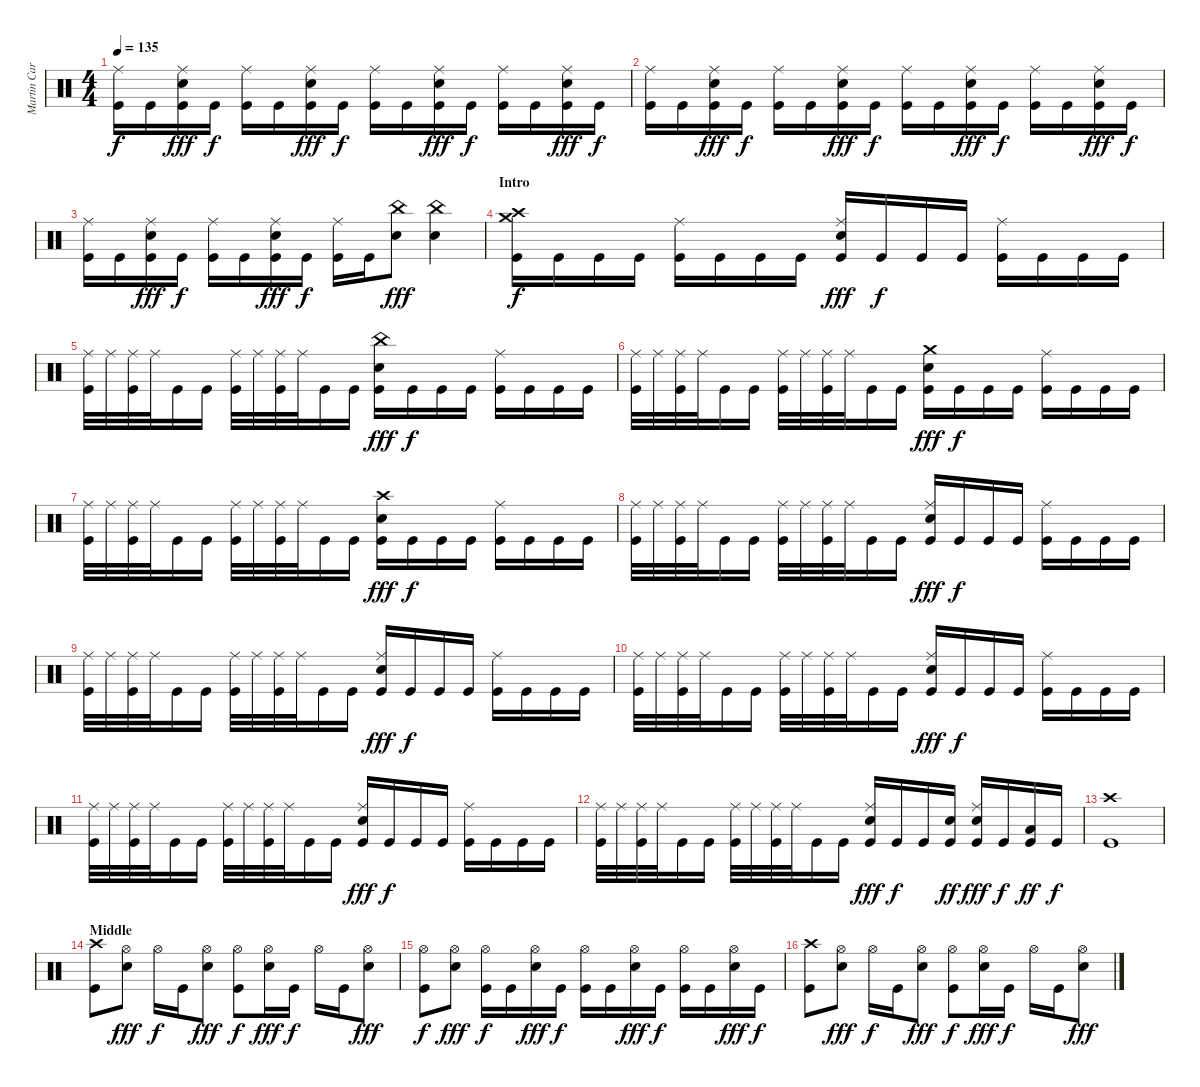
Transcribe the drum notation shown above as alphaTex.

\track ("Martin Carrizo" "Martin Car") {instrument percussion}
\staff {score}
\articulation defaults
\ts (4 4)
\tempo 135
\clef neutral
\ks c
("Kick (hit)" "Ride (middle)").16{dy f} "Kick (hit)".16 ("Kick (hit)" "Snare (hit) 2" "Ride (middle)").16{dy fff} "Kick (hit)".16{dy f} ("Kick (hit)" "Ride (middle)").16 "Kick (hit)".16 ("Kick (hit)" "Snare (hit) 2" "Ride (middle)").16{dy fff} "Kick (hit)".16{dy f} ("Kick (hit)" "Ride (middle)").16 "Kick (hit)".16 ("Kick (hit)" "Snare (hit) 2" "Ride (middle)").16{dy fff} "Kick (hit)".16{dy f} ("Kick (hit)" "Ride (middle)").16 "Kick (hit)".16 ("Kick (hit)" "Snare (hit) 2" "Ride (middle)").16{dy fff} "Kick (hit)".16{dy f} |
("Kick (hit)" "Ride (middle)").16 "Kick (hit)".16 ("Kick (hit)" "Snare (hit) 2" "Ride (middle)").16{dy fff} "Kick (hit)".16{dy f} ("Kick (hit)" "Ride (middle)").16 "Kick (hit)".16 ("Kick (hit)" "Snare (hit) 2" "Ride (middle)").16{dy fff} "Kick (hit)".16{dy f} ("Kick (hit)" "Ride (middle)").16 "Kick (hit)".16 ("Kick (hit)" "Snare (hit) 2" "Ride (middle)").16{dy fff} "Kick (hit)".16{dy f} ("Kick (hit)" "Ride (middle)").16 "Kick (hit)".16 ("Kick (hit)" "Snare (hit) 2" "Ride (middle)").16{dy fff} "Kick (hit)".16{dy f} |
("Kick (hit)" "Ride (middle)").16 "Kick (hit)".16 ("Kick (hit)" "Snare (hit) 2" "Ride (middle)").16{dy fff} "Kick (hit)".16{dy f} ("Kick (hit)" "Ride (middle)").16 "Kick (hit)".16 ("Kick (hit)" "Snare (hit) 2" "Ride (middle)").16{dy fff} "Kick (hit)".16{dy f} ("Kick (hit)" "Ride (middle)").16 "Kick (hit)".16 ("Snare (hit) 2" "China (hit)").8{dy fff} ("Snare (hit) 2" "China (hit)").4 |
\section ("" "Intro")
("Kick (hit)" "Crash high (hit)" "Crash medium (hit)").16{dy f} "Kick (hit)".16 "Kick (hit)".16 "Kick (hit)".16 ("Kick (hit)" "Ride (middle)").16 "Kick (hit)".16 "Kick (hit)".16 "Kick (hit)".16 ("Kick (hit)" "Snare (hit) 2" "Ride (middle)").16{dy fff} "Kick (hit)".16{dy f} "Kick (hit)".16 "Kick (hit)".16 ("Kick (hit)" "Ride (middle)").16 "Kick (hit)".16 "Kick (hit)".16 "Kick (hit)".16 |
("Kick (hit)" "Ride (middle)").32 "Ride (middle)".32 ("Kick (hit)" "Ride (middle)").32 "Ride (middle)".32 "Kick (hit)".16 "Kick (hit)".16 ("Kick (hit)" "Ride (middle)").32 "Ride (middle)".32 ("Kick (hit)" "Ride (middle)").32 "Ride (middle)".32 "Kick (hit)".16 "Kick (hit)".16 ("Kick (hit)" "Snare (hit) 2" "China (hit)").16{dy fff} "Kick (hit)".16{dy f} "Kick (hit)".16 "Kick (hit)".16 ("Kick (hit)" "Ride (middle)").16 "Kick (hit)".16 "Kick (hit)".16 "Kick (hit)".16 |
("Kick (hit)" "Ride (middle)").32 "Ride (middle)".32 ("Kick (hit)" "Ride (middle)").32 "Ride (middle)".32 "Kick (hit)".16 "Kick (hit)".16 ("Kick (hit)" "Ride (middle)").32 "Ride (middle)".32 ("Kick (hit)" "Ride (middle)").32 "Ride (middle)".32 "Kick (hit)".16 "Kick (hit)".16 ("Kick (hit)" "Snare (hit) 2" "Crash medium (hit)").16{dy fff} "Kick (hit)".16{dy f} "Kick (hit)".16 "Kick (hit)".16 ("Kick (hit)" "Ride (middle)").16 "Kick (hit)".16 "Kick (hit)".16 "Kick (hit)".16 |
("Kick (hit)" "Ride (middle)").32 "Ride (middle)".32 ("Kick (hit)" "Ride (middle)").32 "Ride (middle)".32 "Kick (hit)".16 "Kick (hit)".16 ("Kick (hit)" "Ride (middle)").32 "Ride (middle)".32 ("Kick (hit)" "Ride (middle)").32 "Ride (middle)".32 "Kick (hit)".16 "Kick (hit)".16 ("Kick (hit)" "Snare (hit) 2" "Crash high (hit)").16{dy fff} "Kick (hit)".16{dy f} "Kick (hit)".16 "Kick (hit)".16 ("Kick (hit)" "Ride (middle)").16 "Kick (hit)".16 "Kick (hit)".16 "Kick (hit)".16 |
("Kick (hit)" "Ride (middle)").32 "Ride (middle)".32 ("Kick (hit)" "Ride (middle)").32 "Ride (middle)".32 "Kick (hit)".16 "Kick (hit)".16 ("Kick (hit)" "Ride (middle)").32 "Ride (middle)".32 ("Kick (hit)" "Ride (middle)").32 "Ride (middle)".32 "Kick (hit)".16 "Kick (hit)".16 ("Kick (hit)" "Snare (hit) 2" "Ride (middle)").16{dy fff} "Kick (hit)".16{dy f} "Kick (hit)".16 "Kick (hit)".16 ("Kick (hit)" "Ride (middle)").16 "Kick (hit)".16 "Kick (hit)".16 "Kick (hit)".16 |
("Kick (hit)" "Ride (middle)").32 "Ride (middle)".32 ("Kick (hit)" "Ride (middle)").32 "Ride (middle)".32 "Kick (hit)".16 "Kick (hit)".16 ("Kick (hit)" "Ride (middle)").32 "Ride (middle)".32 ("Kick (hit)" "Ride (middle)").32 "Ride (middle)".32 "Kick (hit)".16 "Kick (hit)".16 ("Kick (hit)" "Snare (hit) 2" "Ride (middle)").16{dy fff} "Kick (hit)".16{dy f} "Kick (hit)".16 "Kick (hit)".16 ("Kick (hit)" "Ride (middle)").16 "Kick (hit)".16 "Kick (hit)".16 "Kick (hit)".16 |
("Kick (hit)" "Ride (middle)").32 "Ride (middle)".32 ("Kick (hit)" "Ride (middle)").32 "Ride (middle)".32 "Kick (hit)".16 "Kick (hit)".16 ("Kick (hit)" "Ride (middle)").32 "Ride (middle)".32 ("Kick (hit)" "Ride (middle)").32 "Ride (middle)".32 "Kick (hit)".16 "Kick (hit)".16 ("Kick (hit)" "Snare (hit) 2" "Ride (middle)").16{dy fff} "Kick (hit)".16{dy f} "Kick (hit)".16 "Kick (hit)".16 ("Kick (hit)" "Ride (middle)").16 "Kick (hit)".16 "Kick (hit)".16 "Kick (hit)".16 |
("Kick (hit)" "Ride (middle)").32 "Ride (middle)".32 ("Kick (hit)" "Ride (middle)").32 "Ride (middle)".32 "Kick (hit)".16 "Kick (hit)".16 ("Kick (hit)" "Ride (middle)").32 "Ride (middle)".32 ("Kick (hit)" "Ride (middle)").32 "Ride (middle)".32 "Kick (hit)".16 "Kick (hit)".16 ("Kick (hit)" "Snare (hit) 2" "Ride (middle)").16{dy fff} "Kick (hit)".16{dy f} "Kick (hit)".16 "Kick (hit)".16 ("Kick (hit)" "Ride (middle)").16 "Kick (hit)".16 "Kick (hit)".16 "Kick (hit)".16 |
("Kick (hit)" "Ride (middle)").32 "Ride (middle)".32 ("Kick (hit)" "Ride (middle)").32 "Ride (middle)".32 "Kick (hit)".16 "Kick (hit)".16 ("Kick (hit)" "Ride (middle)").32 "Ride (middle)".32 ("Kick (hit)" "Ride (middle)").32 "Ride (middle)".32 "Kick (hit)".16 "Kick (hit)".16 ("Kick (hit)" "Snare (hit) 2" "Ride (middle)").16{dy fff} "Kick (hit)".16{dy f} "Kick (hit)".16 ("Kick (hit)" "Snare (hit) 2").16{dy ff} ("Kick (hit)" "Snare (hit) 2" "Ride (middle)").16{dy fff} "Kick (hit)".16{dy f} ("Kick (hit)" "Low Tom (hit)").16{dy ff} "Kick (hit)".16{dy f} |
("Kick (hit)" "Crash high (hit)").1 |
\section ("" "Middle")
("Kick (hit)" "Crash high (hit)").8 ("Snare (hit) 2" "Hi-Hat (open)").8{dy fff} "Hi-Hat (open)".16{dy f} "Kick (hit)".16 ("Snare (hit) 2" "Hi-Hat (open)").8{dy fff} ("Kick (hit)" "Hi-Hat (open)").8{dy f} ("Snare (hit) 2" "Hi-Hat (open)").16{dy fff} "Kick (hit)".16{dy f} "Hi-Hat (open)".16 "Kick (hit)".16 ("Snare (hit) 2" "Hi-Hat (open)").8{dy fff} |
("Kick (hit)" "Hi-Hat (open)").8{dy f} ("Snare (hit) 2" "Hi-Hat (open)").8{dy fff} ("Kick (hit)" "Hi-Hat (open)").16{dy f} "Kick (hit)".16 ("Snare (hit) 2" "Hi-Hat (open)").16{dy fff} "Kick (hit)".16{dy f} ("Kick (hit)" "Hi-Hat (open)").16 "Kick (hit)".16 ("Snare (hit) 2" "Hi-Hat (open)").16{dy fff} "Kick (hit)".16{dy f} ("Kick (hit)" "Hi-Hat (open)").16 "Kick (hit)".16 ("Snare (hit) 2" "Hi-Hat (open)").16{dy fff} "Kick (hit)".16{dy f} |
("Kick (hit)" "Crash high (hit)").8 ("Snare (hit) 2" "Hi-Hat (open)").8{dy fff} "Hi-Hat (open)".16{dy f} "Kick (hit)".16 ("Snare (hit) 2" "Hi-Hat (open)").8{dy fff} ("Kick (hit)" "Hi-Hat (open)").8{dy f} ("Snare (hit) 2" "Hi-Hat (open)").16{dy fff} "Kick (hit)".16{dy f} "Hi-Hat (open)".16 "Kick (hit)".16 ("Snare (hit) 2" "Hi-Hat (open)").8{dy fff}
